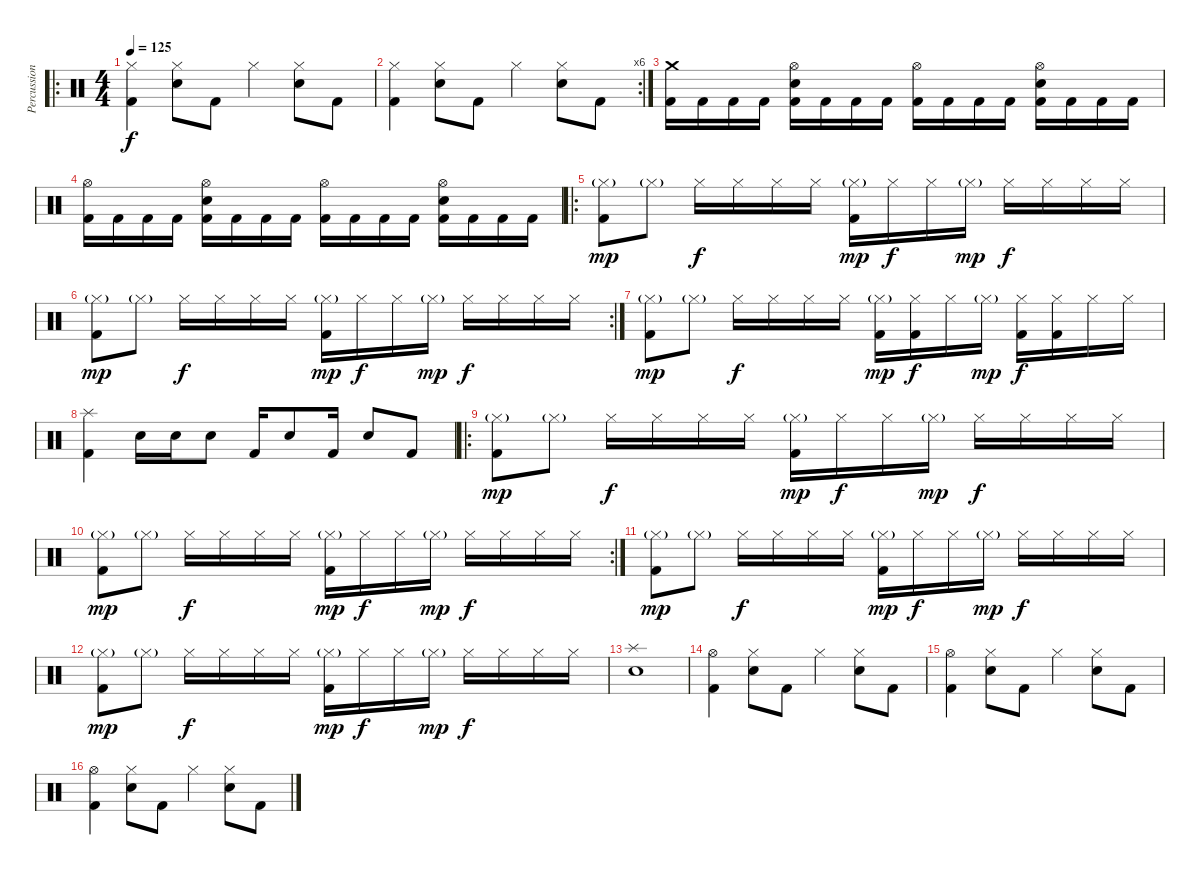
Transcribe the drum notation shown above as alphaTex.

\track ("Percussion" "Percussion") {instrument percussion}
\staff {score}
\articulation defaults
\ro
\ts (4 4)
\tempo 125
\clef neutral
\ks c
("Hi-Hat (closed)" "Kick (hit) 2").4{dy f} ("Hi-Hat (closed)" "Electric Snare (hit)").8 "Kick (hit) 2".8 "Hi-Hat (closed)".4 ("Hi-Hat (closed)" "Electric Snare (hit)").8 "Kick (hit) 2".8 |
\rc 6
("Hi-Hat (closed)" "Kick (hit) 2").4 ("Hi-Hat (closed)" "Electric Snare (hit)").8 "Kick (hit) 2".8 "Hi-Hat (closed)".4 ("Hi-Hat (closed)" "Electric Snare (hit)").8 "Kick (hit) 2".8 |
("Crash medium (hit)" "Kick (hit) 2").16 "Kick (hit) 2".16 "Kick (hit) 2".16 "Kick (hit) 2".16 ("Hi-Hat (open)" "Electric Snare (hit)" "Kick (hit) 2").16 "Kick (hit) 2".16 "Kick (hit) 2".16 "Kick (hit) 2".16 ("Hi-Hat (open)" "Kick (hit) 2").16 "Kick (hit) 2".16 "Kick (hit) 2".16 "Kick (hit) 2".16 ("Electric Snare (hit)" "Hi-Hat (open)" "Kick (hit) 2").16 "Kick (hit) 2".16 "Kick (hit) 2".16 "Kick (hit) 2".16 |
("Hi-Hat (open)" "Kick (hit) 2").16 "Kick (hit) 2".16 "Kick (hit) 2".16 "Kick (hit) 2".16 ("Hi-Hat (open)" "Electric Snare (hit)" "Kick (hit) 2").16 "Kick (hit) 2".16 "Kick (hit) 2".16 "Kick (hit) 2".16 ("Hi-Hat (open)" "Kick (hit) 2").16 "Kick (hit) 2".16 "Kick (hit) 2".16 "Kick (hit) 2".16 ("Electric Snare (hit)" "Hi-Hat (open)" "Kick (hit) 2").16 "Kick (hit) 2".16 "Kick (hit) 2".16 "Kick (hit) 2".16 |
\ro
("Hi-Hat (closed)"{g} "Kick (hit) 2").8{dy mp} "Hi-Hat (closed)"{g}.8 "Hi-Hat (closed)".16{dy f} "Hi-Hat (closed)".16 "Hi-Hat (closed)".16 "Hi-Hat (closed)".16 ("Hi-Hat (closed)"{g} "Kick (hit) 2").16{dy mp} "Hi-Hat (closed)".16{dy f} "Hi-Hat (closed)".16 "Hi-Hat (closed)"{g}.16{dy mp} "Hi-Hat (closed)".16{dy f} "Hi-Hat (closed)".16 "Hi-Hat (closed)".16 "Hi-Hat (closed)".16 |
\rc 2
("Hi-Hat (closed)"{g} "Kick (hit) 2").8{dy mp} "Hi-Hat (closed)"{g}.8 "Hi-Hat (closed)".16{dy f} "Hi-Hat (closed)".16 "Hi-Hat (closed)".16 "Hi-Hat (closed)".16 ("Hi-Hat (closed)"{g} "Kick (hit) 2").16{dy mp} "Hi-Hat (closed)".16{dy f} "Hi-Hat (closed)".16 "Hi-Hat (closed)"{g}.16{dy mp} "Hi-Hat (closed)".16{dy f} "Hi-Hat (closed)".16 "Hi-Hat (closed)".16 "Hi-Hat (closed)".16 |
("Hi-Hat (closed)"{g} "Kick (hit) 2").8{dy mp} "Hi-Hat (closed)"{g}.8 "Hi-Hat (closed)".16{dy f} "Hi-Hat (closed)".16 "Hi-Hat (closed)".16 "Hi-Hat (closed)".16 ("Hi-Hat (closed)"{g} "Kick (hit) 2").16{dy mp} ("Hi-Hat (closed)" "Kick (hit) 2").16{dy f} "Hi-Hat (closed)".16 "Hi-Hat (closed)"{g}.16{dy mp} ("Hi-Hat (closed)" "Kick (hit) 2").16{dy f} ("Hi-Hat (closed)" "Kick (hit) 2").16 "Hi-Hat (closed)".16 "Hi-Hat (closed)".16 |
("Splash (hit)" "Kick (hit) 2").4 "Electric Snare (hit)".16 "Electric Snare (hit)".16 "Electric Snare (hit)".8 "Kick (hit) 2".16 "Electric Snare (hit)".8 "Kick (hit) 2".16 "Electric Snare (hit)".8 "Kick (hit) 2".8 |
\ro
("Hi-Hat (closed)"{g} "Kick (hit) 2").8{dy mp} "Hi-Hat (closed)"{g}.8 "Hi-Hat (closed)".16{dy f} "Hi-Hat (closed)".16 "Hi-Hat (closed)".16 "Hi-Hat (closed)".16 ("Hi-Hat (closed)"{g} "Kick (hit) 2").16{dy mp} "Hi-Hat (closed)".16{dy f} "Hi-Hat (closed)".16 "Hi-Hat (closed)"{g}.16{dy mp} "Hi-Hat (closed)".16{dy f} "Hi-Hat (closed)".16 "Hi-Hat (closed)".16 "Hi-Hat (closed)".16 |
\rc 2
("Hi-Hat (closed)"{g} "Kick (hit) 2").8{dy mp} "Hi-Hat (closed)"{g}.8 "Hi-Hat (closed)".16{dy f} "Hi-Hat (closed)".16 "Hi-Hat (closed)".16 "Hi-Hat (closed)".16 ("Hi-Hat (closed)"{g} "Kick (hit) 2").16{dy mp} "Hi-Hat (closed)".16{dy f} "Hi-Hat (closed)".16 "Hi-Hat (closed)"{g}.16{dy mp} "Hi-Hat (closed)".16{dy f} "Hi-Hat (closed)".16 "Hi-Hat (closed)".16 "Hi-Hat (closed)".16 |
("Hi-Hat (closed)"{g} "Kick (hit) 2").8{dy mp} "Hi-Hat (closed)"{g}.8 "Hi-Hat (closed)".16{dy f} "Hi-Hat (closed)".16 "Hi-Hat (closed)".16 "Hi-Hat (closed)".16 ("Hi-Hat (closed)"{g} "Kick (hit) 2").16{dy mp} "Hi-Hat (closed)".16{dy f} "Hi-Hat (closed)".16 "Hi-Hat (closed)"{g}.16{dy mp} "Hi-Hat (closed)".16{dy f} "Hi-Hat (closed)".16 "Hi-Hat (closed)".16 "Hi-Hat (closed)".16 |
("Hi-Hat (closed)"{g} "Kick (hit) 2").8{dy mp} "Hi-Hat (closed)"{g}.8 "Hi-Hat (closed)".16{dy f} "Hi-Hat (closed)".16 "Hi-Hat (closed)".16 "Hi-Hat (closed)".16 ("Hi-Hat (closed)"{g} "Kick (hit) 2").16{dy mp} "Hi-Hat (closed)".16{dy f} "Hi-Hat (closed)".16 "Hi-Hat (closed)"{g}.16{dy mp} "Hi-Hat (closed)".16{dy f} "Hi-Hat (closed)".16 "Hi-Hat (closed)".16 "Hi-Hat (closed)".16 |
("Splash (hit)" "Electric Snare (hit)").1 |
("Hi-Hat (open)" "Kick (hit) 2").4 ("Hi-Hat (closed)" "Electric Snare (hit)").8 "Kick (hit) 2".8 "Hi-Hat (closed)".4 ("Hi-Hat (closed)" "Electric Snare (hit)").8 "Kick (hit) 2".8 |
("Hi-Hat (open)" "Kick (hit) 2").4 ("Hi-Hat (closed)" "Electric Snare (hit)").8 "Kick (hit) 2".8 "Hi-Hat (closed)".4 ("Hi-Hat (closed)" "Electric Snare (hit)").8 "Kick (hit) 2".8 |
("Hi-Hat (open)" "Kick (hit) 2").4 ("Hi-Hat (closed)" "Electric Snare (hit)").8 "Kick (hit) 2".8 "Hi-Hat (closed)".4 ("Hi-Hat (closed)" "Electric Snare (hit)").8 "Kick (hit) 2".8
